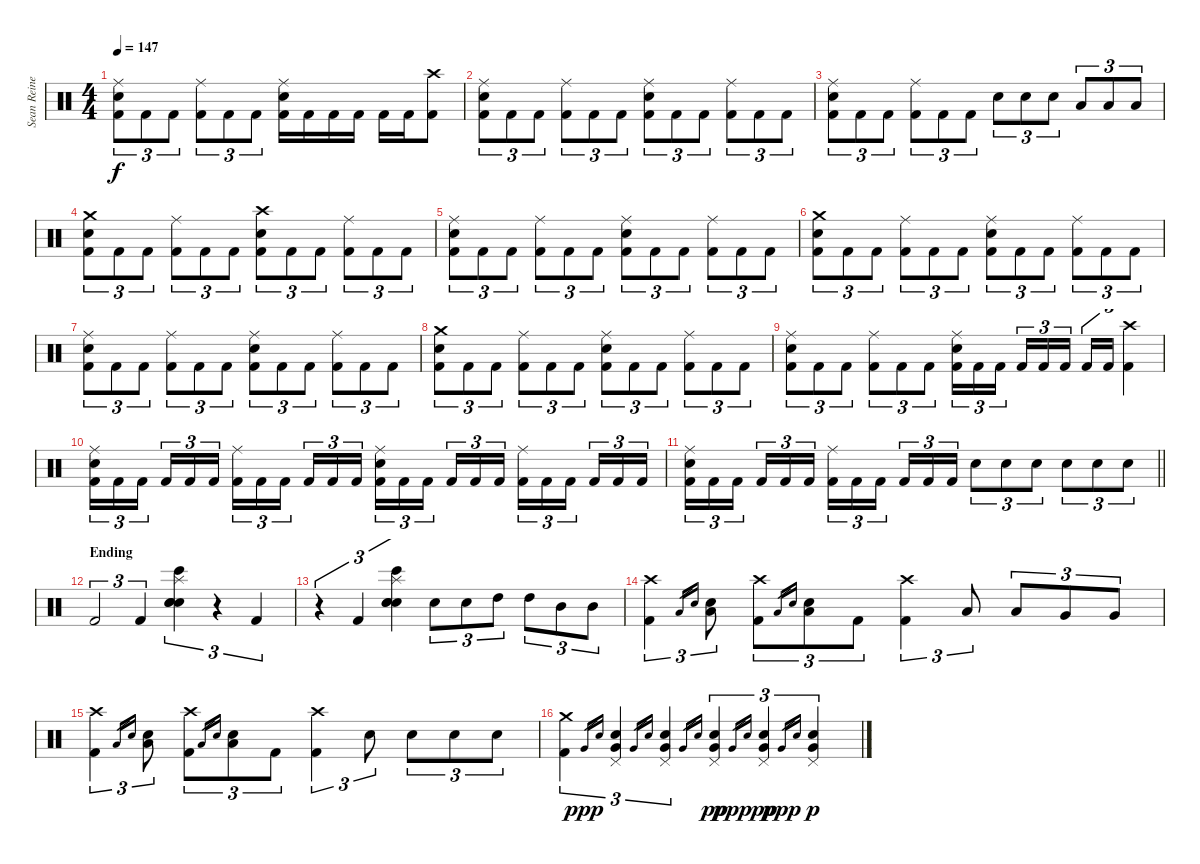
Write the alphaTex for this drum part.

\track ("Sean Reinert" "Sean Reine") {instrument percussion}
\staff {score}
\articulation defaults
\ts (4 4)
\tempo 147
\clef neutral
\ks c
("Ride (middle)" "Snare (hit) 2" "Kick (hit) 2").8{tu (3 2) dy f} "Kick (hit) 2".8{tu (3 2)} "Kick (hit) 2".8{tu (3 2)} ("Ride (middle)" "Kick (hit) 2").8{tu (3 2)} "Kick (hit) 2".8{tu (3 2)} "Kick (hit) 2".8{tu (3 2)} ("Ride (middle)" "Snare (hit) 2" "Kick (hit) 2").16 "Kick (hit) 2".16 "Kick (hit) 2".16 "Kick (hit) 2".16 "Kick (hit) 2".16 "Kick (hit) 2".16 ("Crash high (hit)" "Kick (hit) 2").8 |
("Ride (middle)" "Snare (hit) 2" "Kick (hit) 2").8{tu (3 2)} "Kick (hit) 2".8{tu (3 2)} "Kick (hit) 2".8{tu (3 2)} ("Ride (middle)" "Kick (hit) 2").8{tu (3 2)} "Kick (hit) 2".8{tu (3 2)} "Kick (hit) 2".8{tu (3 2)} ("Ride (middle)" "Snare (hit) 2" "Kick (hit) 2").8{tu (3 2)} "Kick (hit) 2".8{tu (3 2)} "Kick (hit) 2".8{tu (3 2)} ("Ride (middle)" "Kick (hit) 2").8{tu (3 2)} "Kick (hit) 2".8{tu (3 2)} "Kick (hit) 2".8{tu (3 2)} |
("Ride (middle)" "Snare (hit) 2" "Kick (hit) 2").8{tu (3 2)} "Kick (hit) 2".8{tu (3 2)} "Kick (hit) 2".8{tu (3 2)} ("Ride (middle)" "Kick (hit) 2").8{tu (3 2)} "Kick (hit) 2".8{tu (3 2)} "Kick (hit) 2".8{tu (3 2)} "Snare (hit) 2".8{tu (3 2)} "Snare (hit) 2".8{tu (3 2)} "Snare (hit) 2".8{tu (3 2)} "Low Tom (hit)".8{tu (3 2)} "Low Tom (hit)".8{tu (3 2)} "Low Tom (hit)".8{tu (3 2)} |
("Crash medium (hit)" "Snare (hit) 2" "Kick (hit) 2").8{tu (3 2)} "Kick (hit) 2".8{tu (3 2)} "Kick (hit) 2".8{tu (3 2)} ("Ride (middle)" "Kick (hit) 2").8{tu (3 2)} "Kick (hit) 2".8{tu (3 2)} "Kick (hit) 2".8{tu (3 2)} ("Crash high (hit)" "Snare (hit) 2" "Kick (hit) 2").8{tu (3 2)} "Kick (hit) 2".8{tu (3 2)} "Kick (hit) 2".8{tu (3 2)} ("Ride (middle)" "Kick (hit) 2").8{tu (3 2)} "Kick (hit) 2".8{tu (3 2)} "Kick (hit) 2".8{tu (3 2)} |
("Ride (middle)" "Snare (hit) 2" "Kick (hit) 2").8{tu (3 2)} "Kick (hit) 2".8{tu (3 2)} "Kick (hit) 2".8{tu (3 2)} ("Ride (middle)" "Kick (hit) 2").8{tu (3 2)} "Kick (hit) 2".8{tu (3 2)} "Kick (hit) 2".8{tu (3 2)} ("Ride (middle)" "Snare (hit) 2" "Kick (hit) 2").8{tu (3 2)} "Kick (hit) 2".8{tu (3 2)} "Kick (hit) 2".8{tu (3 2)} ("Ride (middle)" "Kick (hit) 2").8{tu (3 2)} "Kick (hit) 2".8{tu (3 2)} "Kick (hit) 2".8{tu (3 2)} |
("Crash medium (hit)" "Snare (hit) 2" "Kick (hit) 2").8{tu (3 2)} "Kick (hit) 2".8{tu (3 2)} "Kick (hit) 2".8{tu (3 2)} ("Ride (middle)" "Kick (hit) 2").8{tu (3 2)} "Kick (hit) 2".8{tu (3 2)} "Kick (hit) 2".8{tu (3 2)} ("Ride (middle)" "Snare (hit) 2" "Kick (hit) 2").8{tu (3 2)} "Kick (hit) 2".8{tu (3 2)} "Kick (hit) 2".8{tu (3 2)} ("Ride (middle)" "Kick (hit) 2").8{tu (3 2)} "Kick (hit) 2".8{tu (3 2)} "Kick (hit) 2".8{tu (3 2)} |
("Ride (middle)" "Snare (hit) 2" "Kick (hit) 2").8{tu (3 2)} "Kick (hit) 2".8{tu (3 2)} "Kick (hit) 2".8{tu (3 2)} ("Ride (middle)" "Kick (hit) 2").8{tu (3 2)} "Kick (hit) 2".8{tu (3 2)} "Kick (hit) 2".8{tu (3 2)} ("Ride (middle)" "Snare (hit) 2" "Kick (hit) 2").8{tu (3 2)} "Kick (hit) 2".8{tu (3 2)} "Kick (hit) 2".8{tu (3 2)} ("Ride (middle)" "Kick (hit) 2").8{tu (3 2)} "Kick (hit) 2".8{tu (3 2)} "Kick (hit) 2".8{tu (3 2)} |
("Crash medium (hit)" "Snare (hit) 2" "Kick (hit) 2").8{tu (3 2)} "Kick (hit) 2".8{tu (3 2)} "Kick (hit) 2".8{tu (3 2)} ("Ride (middle)" "Kick (hit) 2").8{tu (3 2)} "Kick (hit) 2".8{tu (3 2)} "Kick (hit) 2".8{tu (3 2)} ("Ride (middle)" "Snare (hit) 2" "Kick (hit) 2").8{tu (3 2)} "Kick (hit) 2".8{tu (3 2)} "Kick (hit) 2".8{tu (3 2)} ("Ride (middle)" "Kick (hit) 2").8{tu (3 2)} "Kick (hit) 2".8{tu (3 2)} "Kick (hit) 2".8{tu (3 2)} |
("Ride (middle)" "Snare (hit) 2" "Kick (hit) 2").8{tu (3 2)} "Kick (hit) 2".8{tu (3 2)} "Kick (hit) 2".8{tu (3 2)} ("Ride (middle)" "Kick (hit) 2").8{tu (3 2)} "Kick (hit) 2".8{tu (3 2)} "Kick (hit) 2".8{tu (3 2)} ("Ride (middle)" "Snare (hit) 2" "Kick (hit) 2").16{tu (3 2)} "Kick (hit) 2".16{tu (3 2)} "Kick (hit) 2".16{tu (3 2) beam splitsecondary} "Kick (hit) 2".16{tu (3 2)} "Kick (hit) 2".16{tu (3 2)} "Kick (hit) 2".16{tu (3 2)} "Kick (hit) 2".16{tu (3 2)} "Kick (hit) 2".16{tu (3 2)} ("Crash high (hit)" "Kick (hit) 2").4{tu (3 2)} |
("Ride (middle)" "Snare (hit) 2" "Kick (hit) 2").16{tu (3 2)} "Kick (hit) 2".16{tu (3 2)} "Kick (hit) 2".16{tu (3 2) beam splitsecondary} "Kick (hit) 2".16{tu (3 2)} "Kick (hit) 2".16{tu (3 2)} "Kick (hit) 2".16{tu (3 2)} ("Ride (middle)" "Kick (hit) 2").16{tu (3 2)} "Kick (hit) 2".16{tu (3 2)} "Kick (hit) 2".16{tu (3 2) beam splitsecondary} "Kick (hit) 2".16{tu (3 2)} "Kick (hit) 2".16{tu (3 2)} "Kick (hit) 2".16{tu (3 2)} ("Ride (middle)" "Snare (hit) 2" "Kick (hit) 2").16{tu (3 2)} "Kick (hit) 2".16{tu (3 2)} "Kick (hit) 2".16{tu (3 2) beam splitsecondary} "Kick (hit) 2".16{tu (3 2)} "Kick (hit) 2".16{tu (3 2)} "Kick (hit) 2".16{tu (3 2)} ("Ride (middle)" "Kick (hit) 2").16{tu (3 2)} "Kick (hit) 2".16{tu (3 2)} "Kick (hit) 2".16{tu (3 2) beam splitsecondary} "Kick (hit) 2".16{tu (3 2)} "Kick (hit) 2".16{tu (3 2)} "Kick (hit) 2".16{tu (3 2)} |
\barLineRight lightlight
("Ride (middle)" "Snare (hit) 2" "Kick (hit) 2").16{tu (3 2)} "Kick (hit) 2".16{tu (3 2)} "Kick (hit) 2".16{tu (3 2) beam splitsecondary} "Kick (hit) 2".16{tu (3 2)} "Kick (hit) 2".16{tu (3 2)} "Kick (hit) 2".16{tu (3 2)} ("Ride (middle)" "Kick (hit) 2").16{tu (3 2)} "Kick (hit) 2".16{tu (3 2)} "Kick (hit) 2".16{tu (3 2) beam splitsecondary} "Kick (hit) 2".16{tu (3 2)} "Kick (hit) 2".16{tu (3 2)} "Kick (hit) 2".16{tu (3 2)} "Snare (hit) 2".8{tu (3 2)} "Snare (hit) 2".8{tu (3 2)} "Snare (hit) 2".8{tu (3 2)} "Snare (hit) 2".8{tu (3 2)} "Snare (hit) 2".8{tu (3 2)} "Snare (hit) 2".8{tu (3 2)} |
\section ("" "Ending")
"Kick (hit) 2".2{tu (3 2)} "Kick (hit) 2".4{tu (3 2)} ("Splash (hit)" "Bongo High (hit)" "Electric Snare (hit)" "Snare (hit) 2" "Snare (hit) 2").4{tu (3 2)} r.4{tu (3 2)} "Kick (hit) 2".4{tu (3 2)} |
r.4{tu (3 2)} "Kick (hit) 2".4{tu (3 2)} ("Splash (hit)" "Bongo High (hit)" "Electric Snare (hit)" "Snare (hit) 2" "Snare (hit) 2").4{tu (3 2)} "Snare (hit) 2".8{tu (3 2)} "Snare (hit) 2".8{tu (3 2)} "High Tom (hit)".8{tu (3 2)} "High Tom (hit)".8{tu (3 2)} "Mid Tom (hit)".8{tu (3 2)} "Mid Tom (hit)".8{tu (3 2)} |
("Crash high (hit)" "Kick (hit) 2").4{tu (3 2)} "Low Floor Tom (hit)".16{gr} "Snare (hit) 2".16{gr} ("Low Floor Tom (hit)" "Snare (hit) 2").8{tu (3 2)} ("Crash high (hit)" "Kick (hit) 2").8{tu (3 2)} "Low Floor Tom (hit)".16{gr} "Snare (hit) 2".16{gr} ("Low Floor Tom (hit)" "Snare (hit) 2").8{tu (3 2)} "Kick (hit) 2".8{tu (3 2)} ("Crash high (hit)" "Kick (hit) 2").4{tu (3 2)} "Low Tom (hit)".8{tu (3 2)} "Low Tom (hit)".8{tu (3 2)} "Very Low Tom (hit)".8{tu (3 2)} "Very Low Tom (hit)".8{tu (3 2)} |
("Crash high (hit)" "Kick (hit) 2").4{tu (3 2)} "Low Floor Tom (hit)".16{gr} "Snare (hit) 2".16{gr} ("Low Floor Tom (hit)" "Snare (hit) 2").8{tu (3 2)} ("Crash high (hit)" "Kick (hit) 2").8{tu (3 2)} "Low Floor Tom (hit)".16{gr} "Snare (hit) 2".16{gr} ("Low Floor Tom (hit)" "Snare (hit) 2").8{tu (3 2)} "Kick (hit) 2".8{tu (3 2)} ("Crash high (hit)" "Kick (hit) 2").4{tu (3 2)} "Snare (hit) 2".8{tu (3 2)} "Snare (hit) 2".8{tu (3 2)} "Snare (hit) 2".8{tu (3 2)} "Snare (hit) 2".8{tu (3 2)} |
("Crash medium (hit)" "Kick (hit) 2").4{tu (3 2)} "Very Low Tom (hit)".16{gr dy ppp} "Snare (hit) 2".16{gr} ("Pedal Hi-Hat (hit)" "Very Low Tom (hit)" "Snare (hit) 2").4{tu (3 2)} "Very Low Tom (hit)".16{gr} "Snare (hit) 2".16{gr} ("Pedal Hi-Hat (hit)" "Very Low Tom (hit)" "Snare (hit) 2").4{tu (3 2)} "Very Low Tom (hit)".16{gr} "Snare (hit) 2".16{gr} ("Pedal Hi-Hat (hit)" "Very Low Tom (hit)" "Snare (hit) 2").4{tu (3 2) dy pp} "Very Low Tom (hit)".16{gr dy ppp} "Snare (hit) 2".16{gr} ("Pedal Hi-Hat (hit)" "Very Low Tom (hit)" "Snare (hit) 2").4{tu (3 2) dy pp} "Very Low Tom (hit)".16{gr dy ppp} "Snare (hit) 2".16{gr} ("Pedal Hi-Hat (hit)" "Very Low Tom (hit)" "Snare (hit) 2").4{tu (3 2) dy p}
